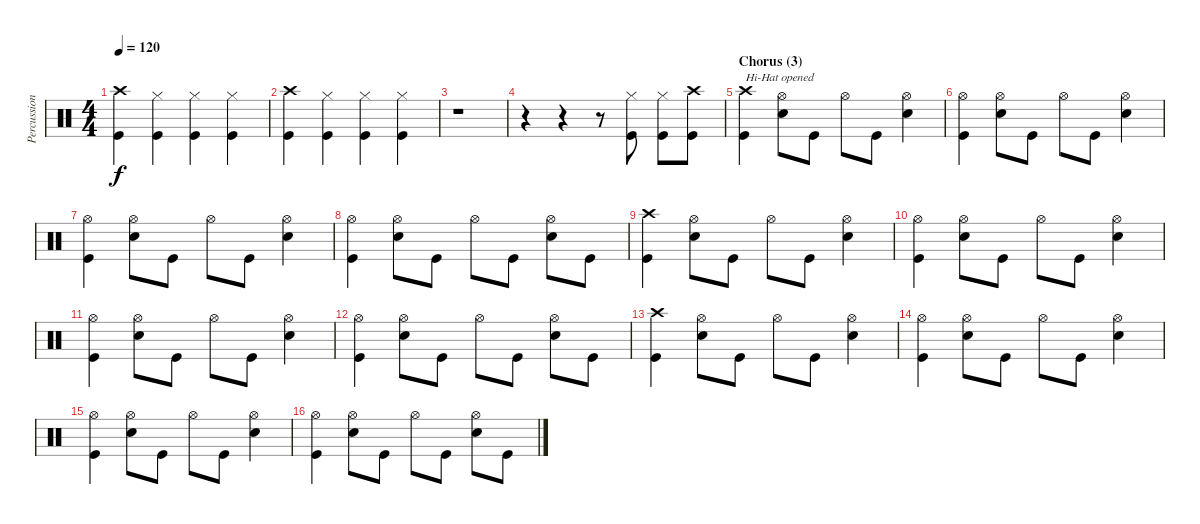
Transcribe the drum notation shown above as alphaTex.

\track ("Percussion" "Percussion") {instrument percussion}
\staff {score}
\articulation defaults
\ts (4 4)
\tempo 120
\clef neutral
\ks c
("Crash high (hit)" "Kick (hit)").4{dy f} ("Hi-Hat (closed)" "Kick (hit)").4 ("Hi-Hat (closed)" "Kick (hit)").4 ("Hi-Hat (closed)" "Kick (hit)").4 |
("Crash high (hit)" "Kick (hit)").4 ("Hi-Hat (closed)" "Kick (hit)").4 ("Hi-Hat (closed)" "Kick (hit)").4 ("Hi-Hat (closed)" "Kick (hit)").4 |
r.1 |
r.4 r.4 r.8 ("Hi-Hat (closed)" "Kick (hit)").8 ("Hi-Hat (closed)" "Kick (hit)").8 ("Crash high (hit)" "Kick (hit)").8 |
\section ("" "Chorus (3)")
("Crash high (hit)" "Kick (hit)").4{txt "Hi-Hat opened"} ("Hi-Hat (open)" "Snare (hit) 2").8 "Kick (hit)".8 "Hi-Hat (open)".8 "Kick (hit)".8 ("Hi-Hat (open)" "Snare (hit) 2").4 |
("Hi-Hat (open)" "Kick (hit)").4 ("Hi-Hat (open)" "Snare (hit) 2").8 "Kick (hit)".8 "Hi-Hat (open)".8 "Kick (hit)".8 ("Hi-Hat (open)" "Snare (hit) 2").4 |
("Hi-Hat (open)" "Kick (hit)").4 ("Hi-Hat (open)" "Snare (hit) 2").8 "Kick (hit)".8 "Hi-Hat (open)".8 "Kick (hit)".8 ("Hi-Hat (open)" "Snare (hit) 2").4 |
("Hi-Hat (open)" "Kick (hit)").4 ("Hi-Hat (open)" "Snare (hit) 2").8 "Kick (hit)".8 "Hi-Hat (open)".8 "Kick (hit)".8 ("Hi-Hat (open)" "Snare (hit) 2").8 "Kick (hit)".8 |
("Crash high (hit)" "Kick (hit)").4 ("Hi-Hat (open)" "Snare (hit) 2").8 "Kick (hit)".8 "Hi-Hat (open)".8 "Kick (hit)".8 ("Hi-Hat (open)" "Snare (hit) 2").4 |
("Hi-Hat (open)" "Kick (hit)").4 ("Hi-Hat (open)" "Snare (hit) 2").8 "Kick (hit)".8 "Hi-Hat (open)".8 "Kick (hit)".8 ("Hi-Hat (open)" "Snare (hit) 2").4 |
("Hi-Hat (open)" "Kick (hit)").4 ("Hi-Hat (open)" "Snare (hit) 2").8 "Kick (hit)".8 "Hi-Hat (open)".8 "Kick (hit)".8 ("Hi-Hat (open)" "Snare (hit) 2").4 |
("Hi-Hat (open)" "Kick (hit)").4 ("Hi-Hat (open)" "Snare (hit) 2").8 "Kick (hit)".8 "Hi-Hat (open)".8 "Kick (hit)".8 ("Hi-Hat (open)" "Snare (hit) 2").8 "Kick (hit)".8 |
("Crash high (hit)" "Kick (hit)").4 ("Hi-Hat (open)" "Snare (hit) 2").8 "Kick (hit)".8 "Hi-Hat (open)".8 "Kick (hit)".8 ("Hi-Hat (open)" "Snare (hit) 2").4 |
("Hi-Hat (open)" "Kick (hit)").4 ("Hi-Hat (open)" "Snare (hit) 2").8 "Kick (hit)".8 "Hi-Hat (open)".8 "Kick (hit)".8 ("Hi-Hat (open)" "Snare (hit) 2").4 |
("Hi-Hat (open)" "Kick (hit)").4 ("Hi-Hat (open)" "Snare (hit) 2").8 "Kick (hit)".8 "Hi-Hat (open)".8 "Kick (hit)".8 ("Hi-Hat (open)" "Snare (hit) 2").4 |
("Hi-Hat (open)" "Kick (hit)").4 ("Hi-Hat (open)" "Snare (hit) 2").8 "Kick (hit)".8 "Hi-Hat (open)".8 "Kick (hit)".8 ("Hi-Hat (open)" "Snare (hit) 2").8 "Kick (hit)".8
